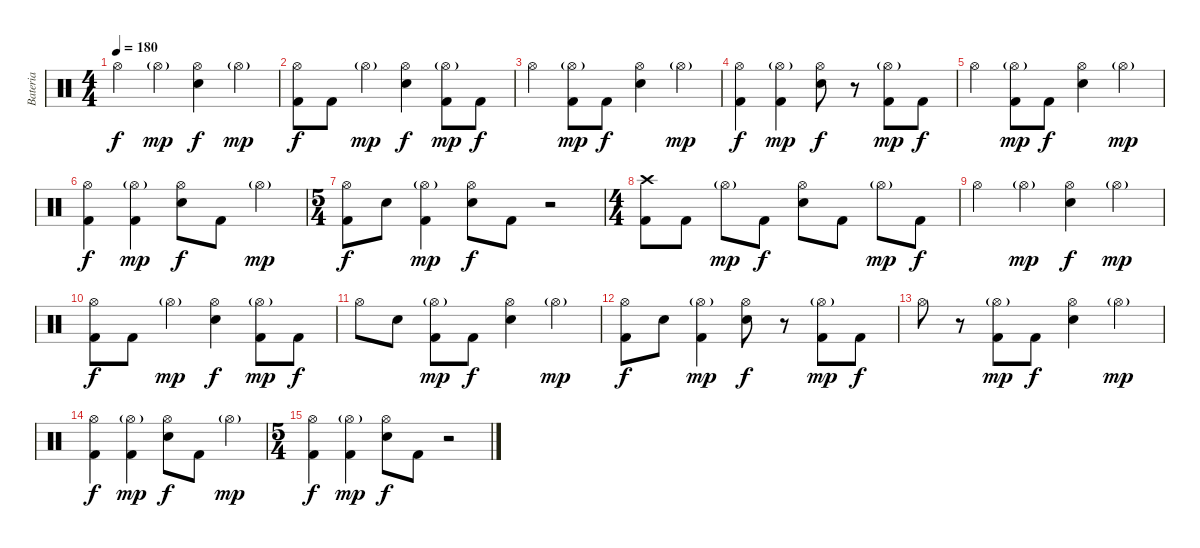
\track ("Bateria" "Bateria") {instrument percussion}
\staff {score}
\articulation defaults
\ts (4 4)
\tempo 180
\clef neutral
\ks c "Hi-Hat (open)".4{dy f} "Hi-Hat (open)"{g}.4{dy mp}
("Hi-Hat (open)" "Electric Snare (hit)").4{dy f} "Hi-Hat (open)"{g}.4{dy mp} |
("Hi-Hat (open)" "Kick (hit) 2").8{dy f} "Kick (hit) 2".8 "Hi-Hat (open)"{g}.4{dy mp} ("Hi-Hat (open)" "Electric Snare (hit)").4{dy f} ("Hi-Hat (open)"{g} "Kick (hit) 2").8{dy mp} "Kick (hit) 2".8{dy f} |
"Hi-Hat (open)".4 ("Hi-Hat (open)"{g} "Kick (hit) 2").8{dy mp} "Kick (hit) 2".8{dy f} ("Hi-Hat (open)" "Electric Snare (hit)").4 "Hi-Hat (open)"{g}.4{dy mp} |
("Hi-Hat (open)" "Kick (hit) 2").4{dy f} ("Hi-Hat (open)"{g} "Kick (hit) 2").4{dy mp} ("Hi-Hat (open)" "Electric Snare (hit)").8{dy f} r.8 ("Hi-Hat (open)"{g} "Kick (hit) 2").8{dy mp} "Kick (hit) 2".8{dy f} |
"Hi-Hat (open)".4 ("Hi-Hat (open)"{g} "Kick (hit) 2").8{dy mp} "Kick (hit) 2".8{dy f} ("Hi-Hat (open)" "Electric Snare (hit)").4 "Hi-Hat (open)"{g}.4{dy mp} |
("Hi-Hat (open)" "Kick (hit) 2").4{dy f} ("Hi-Hat (open)"{g} "Kick (hit) 2").4{dy mp} ("Hi-Hat (open)" "Electric Snare (hit)").8{dy f} "Kick (hit) 2".8 "Hi-Hat (open)"{g}.4{dy mp} |
\ts (5 4)
("Hi-Hat (open)" "Kick (hit) 2").8{dy f} "Electric Snare (hit)".8 ("Hi-Hat (open)"{g} "Kick (hit) 2").4{dy mp} ("Hi-Hat (open)" "Electric Snare (hit)").8{dy f} "Kick (hit) 2".8 r.2 |
\ts (4 4)
("Crash high (hit)" "Kick (hit) 2").8 "Kick (hit) 2".8 "Hi-Hat (open)"{g}.8{dy mp} "Kick (hit) 2".8{dy f} ("Hi-Hat (open)" "Electric Snare (hit)").8 "Kick (hit) 2".8 "Hi-Hat (open)"{g}.8{dy mp} "Kick (hit) 2".8{dy f} |
"Hi-Hat (open)".4 "Hi-Hat (open)"{g}.4{dy mp} ("Hi-Hat (open)" "Electric Snare (hit)").4{dy f} "Hi-Hat (open)"{g}.4{dy mp} |
("Hi-Hat (open)" "Kick (hit) 2").8{dy f} "Kick (hit) 2".8 "Hi-Hat (open)"{g}.4{dy mp} ("Hi-Hat (open)" "Electric Snare (hit)").4{dy f} ("Hi-Hat (open)"{g} "Kick (hit) 2").8{dy mp} "Kick (hit) 2".8{dy f} |
"Hi-Hat (open)".8 "Electric Snare (hit)".8 ("Hi-Hat (open)"{g} "Kick (hit) 2").8{dy mp} "Kick (hit) 2".8{dy f} ("Hi-Hat (open)" "Electric Snare (hit)").4 "Hi-Hat (open)"{g}.4{dy mp} |
("Hi-Hat (open)" "Kick (hit) 2").8{dy f} "Electric Snare (hit)".8 ("Hi-Hat (open)"{g} "Kick (hit) 2").4{dy mp} ("Hi-Hat (open)" "Electric Snare (hit)").8{dy f} r.8 ("Hi-Hat (open)"{g} "Kick (hit) 2").8{dy mp} "Kick (hit) 2".8{dy f} |
"Hi-Hat (open)".8 r.8 ("Hi-Hat (open)"{g} "Kick (hit) 2").8{dy mp} "Kick (hit) 2".8{dy f} ("Hi-Hat (open)" "Electric Snare (hit)").4 "Hi-Hat (open)"{g}.4{dy mp} |
("Hi-Hat (open)" "Kick (hit) 2").4{dy f} ("Hi-Hat (open)"{g} "Kick (hit) 2").4{dy mp} ("Hi-Hat (open)" "Electric Snare (hit)").8{dy f} "Kick (hit) 2".8 "Hi-Hat (open)"{g}.4{dy mp} |
\ts (5 4)
("Hi-Hat (open)" "Kick (hit) 2").4{dy f} ("Hi-Hat (open)"{g} "Kick (hit) 2").4{dy mp} ("Hi-Hat (open)" "Electric Snare (hit)").8{dy f} "Kick (hit) 2".8 r.2
